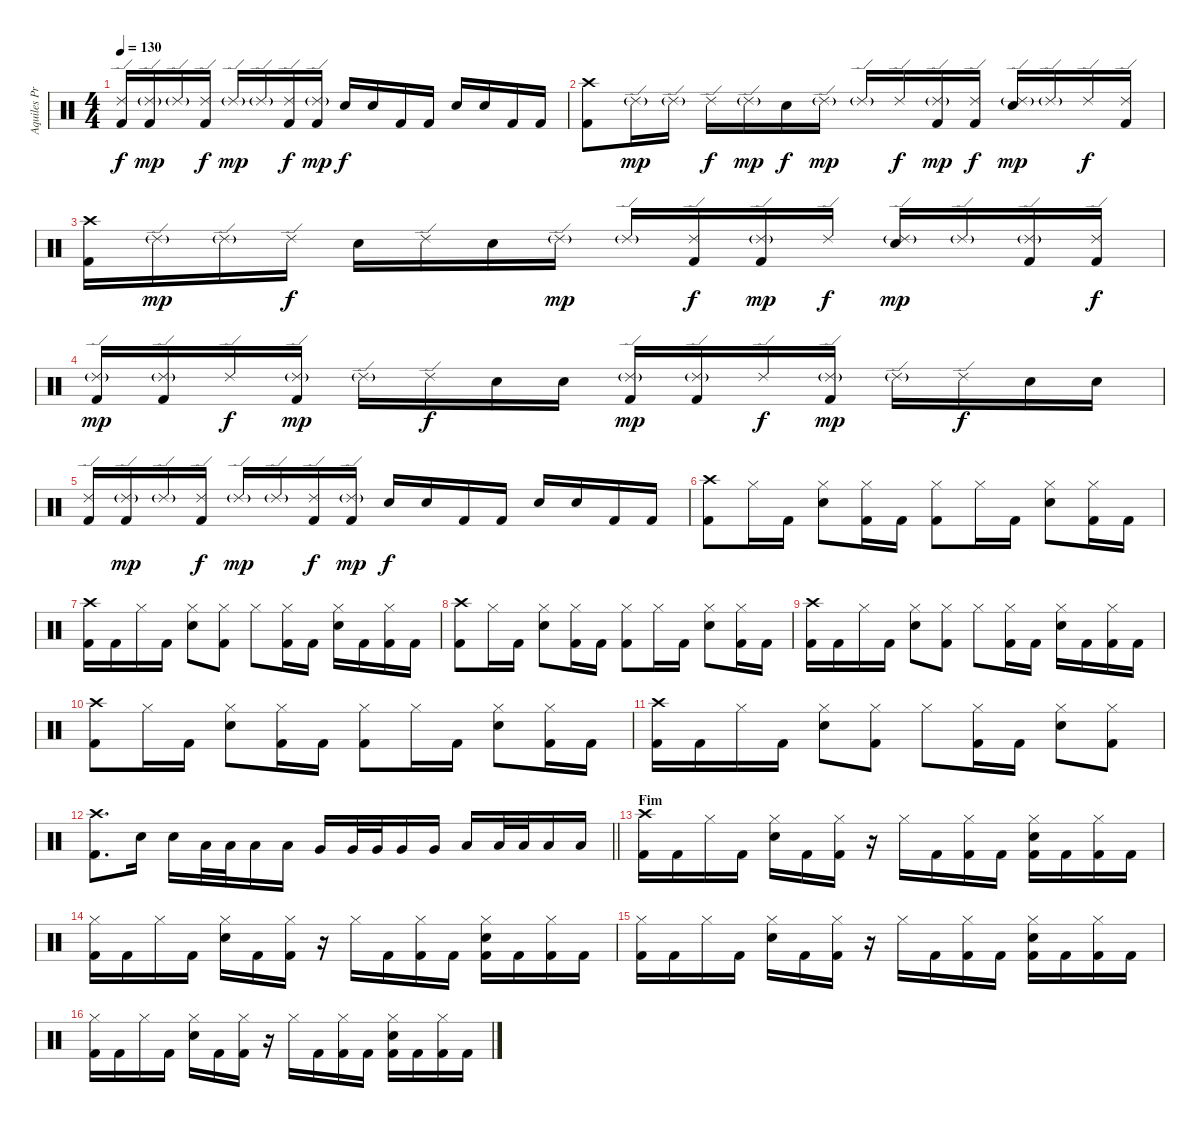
\track ("Aquiles Priester" "Aquiles Pr") {instrument percussion}
\staff {score}
\articulation defaults
\ts (4 4)
\tempo 130
\clef neutral
\ks c
("Ride (edge) 2" "Kick (hit) 2").16{dy f} ("Ride (edge) 2"{g} "Kick (hit) 2").16{dy mp} "Ride (edge) 2"{g}.16 ("Ride (edge) 2" "Kick (hit) 2").16{dy f} "Ride (edge) 2"{g}.16{dy mp} "Ride (edge) 2"{g}.16 ("Ride (edge) 2" "Kick (hit) 2").16{dy f} ("Ride (edge) 2"{g} "Kick (hit) 2").16{dy mp} "Electric Snare (hit)".16{dy f} "Electric Snare (hit)".16 "Kick (hit) 2".16 "Kick (hit) 2".16 "Electric Snare (hit)".16 "Electric Snare (hit)".16 "Kick (hit) 2".16 "Kick (hit) 2".16 |
("Crash high (hit)" "Kick (hit) 2").8 "Ride (edge) 2"{g}.16{dy mp} "Ride (edge) 2"{g}.16 "Ride (edge) 2".16{dy f} "Ride (edge) 2"{g}.16{dy mp} "Electric Snare (hit)".16{dy f} "Ride (edge) 2"{g}.16{dy mp} "Ride (edge) 2"{g}.16 "Ride (edge) 2".16{dy f} ("Ride (edge) 2"{g} "Kick (hit) 2").16{dy mp} ("Ride (edge) 2" "Kick (hit) 2").16{dy f} ("Ride (edge) 2"{g} "Electric Snare (hit)").16{dy mp} "Ride (edge) 2"{g}.16 "Ride (edge) 2".16{dy f} ("Ride (edge) 2" "Kick (hit) 2").16 |
("Crash high (hit)" "Kick (hit) 2").16 "Ride (edge) 2"{g}.16{dy mp} "Ride (edge) 2"{g}.16 "Ride (edge) 2".16{dy f} "Electric Snare (hit)".16 "Ride (edge) 2".16 "Electric Snare (hit)".16 "Ride (edge) 2"{g}.16{dy mp} "Ride (edge) 2"{g}.16 ("Ride (edge) 2" "Kick (hit) 2").16{dy f} ("Ride (edge) 2"{g} "Kick (hit) 2").16{dy mp} "Ride (edge) 2".16{dy f} ("Ride (edge) 2"{g} "Electric Snare (hit)").16{dy mp} "Ride (edge) 2"{g}.16 ("Ride (edge) 2"{g} "Kick (hit) 2").16 ("Ride (edge) 2" "Kick (hit) 2").16{dy f} |
("Ride (edge) 2"{g} "Kick (hit) 2").16{dy mp} ("Ride (edge) 2"{g} "Kick (hit) 2").16 "Ride (edge) 2".16{dy f} ("Ride (edge) 2"{g} "Kick (hit) 2").16{dy mp} "Ride (edge) 2"{g}.16 "Ride (edge) 2".16{dy f} "Electric Snare (hit)".16 "Electric Snare (hit)".16 ("Ride (edge) 2"{g} "Kick (hit) 2").16{dy mp} ("Ride (edge) 2"{g} "Kick (hit) 2").16 "Ride (edge) 2".16{dy f} ("Ride (edge) 2"{g} "Kick (hit) 2").16{dy mp} "Ride (edge) 2"{g}.16 "Ride (edge) 2".16{dy f} "Electric Snare (hit)".16 "Electric Snare (hit)".16 |
("Ride (edge) 2" "Kick (hit) 2").16 ("Ride (edge) 2"{g} "Kick (hit) 2").16{dy mp} "Ride (edge) 2"{g}.16 ("Ride (edge) 2" "Kick (hit) 2").16{dy f} "Ride (edge) 2"{g}.16{dy mp} "Ride (edge) 2"{g}.16 ("Ride (edge) 2" "Kick (hit) 2").16{dy f} ("Ride (edge) 2"{g} "Kick (hit) 2").16{dy mp} "Electric Snare (hit)".16{dy f} "Electric Snare (hit)".16 "Kick (hit) 2".16 "Kick (hit) 2".16 "Electric Snare (hit)".16 "Electric Snare (hit)".16 "Kick (hit) 2".16 "Kick (hit) 2".16 |
("Crash high (hit)" "Kick (hit) 2").8 "Hi-Hat (closed)".16 "Kick (hit) 2".16 ("Hi-Hat (closed)" "Electric Snare (hit)").8 ("Hi-Hat (closed)" "Kick (hit) 2").16 "Kick (hit) 2".16 ("Hi-Hat (closed)" "Kick (hit) 2").8 "Hi-Hat (closed)".16 "Kick (hit) 2".16 ("Hi-Hat (closed)" "Electric Snare (hit)").8 ("Hi-Hat (closed)" "Kick (hit) 2").16 "Kick (hit) 2".16 |
("Crash high (hit)" "Kick (hit) 2").16 "Kick (hit) 2".16 "Hi-Hat (closed)".16 "Kick (hit) 2".16 ("Hi-Hat (closed)" "Electric Snare (hit)").8 ("Hi-Hat (closed)" "Kick (hit) 2").8 "Hi-Hat (closed)".8 ("Hi-Hat (closed)" "Kick (hit) 2").16 "Kick (hit) 2".16 ("Hi-Hat (closed)" "Electric Snare (hit)").16 "Kick (hit) 2".16 ("Hi-Hat (closed)" "Kick (hit) 2").16 "Kick (hit) 2".16 |
("Crash high (hit)" "Kick (hit) 2").8 "Hi-Hat (closed)".16 "Kick (hit) 2".16 ("Hi-Hat (closed)" "Electric Snare (hit)").8 ("Hi-Hat (closed)" "Kick (hit) 2").16 "Kick (hit) 2".16 ("Hi-Hat (closed)" "Kick (hit) 2").8 "Hi-Hat (closed)".16 "Kick (hit) 2".16 ("Hi-Hat (closed)" "Electric Snare (hit)").8 ("Hi-Hat (closed)" "Kick (hit) 2").16 "Kick (hit) 2".16 |
("Crash high (hit)" "Kick (hit) 2").16 "Kick (hit) 2".16 "Hi-Hat (closed)".16 "Kick (hit) 2".16 ("Hi-Hat (closed)" "Electric Snare (hit)").8 ("Hi-Hat (closed)" "Kick (hit) 2").8 "Hi-Hat (closed)".8 ("Hi-Hat (closed)" "Kick (hit) 2").16 "Kick (hit) 2".16 ("Hi-Hat (closed)" "Electric Snare (hit)").16 "Kick (hit) 2".16 ("Hi-Hat (closed)" "Kick (hit) 2").16 "Kick (hit) 2".16 |
("Crash high (hit)" "Kick (hit) 2").8 "Hi-Hat (closed)".16 "Kick (hit) 2".16 ("Hi-Hat (closed)" "Electric Snare (hit)").8 ("Hi-Hat (closed)" "Kick (hit) 2").16 "Kick (hit) 2".16 ("Hi-Hat (closed)" "Kick (hit) 2").8 "Hi-Hat (closed)".16 "Kick (hit) 2".16 ("Hi-Hat (closed)" "Electric Snare (hit)").8 ("Hi-Hat (closed)" "Kick (hit) 2").16 "Kick (hit) 2".16 |
("Crash high (hit)" "Kick (hit) 2").16 "Kick (hit) 2".16 "Hi-Hat (closed)".16 "Kick (hit) 2".16 ("Hi-Hat (closed)" "Electric Snare (hit)").8 ("Hi-Hat (closed)" "Kick (hit) 2").8 "Hi-Hat (closed)".8 ("Hi-Hat (closed)" "Kick (hit) 2").16 "Kick (hit) 2".16 ("Hi-Hat (closed)" "Electric Snare (hit)").8 ("Hi-Hat (closed)" "Kick (hit) 2").8 |
\barLineRight lightlight
("Crash high (hit)" "Kick (hit) 2").8{d} "Electric Snare (hit)".16 "Electric Snare (hit)".16 "Low Tom (hit)".32 "Low Tom (hit)".32 "Low Tom (hit)".16 "Low Tom (hit)".16 "Very Low Tom (hit)".16 "Very Low Tom (hit)".32 "Very Low Tom (hit)".32 "Very Low Tom (hit)".16 "Very Low Tom (hit)".16 "Low Floor Tom (hit)".16 "Low Floor Tom (hit)".32 "Low Floor Tom (hit)".32 "Low Floor Tom (hit)".16 "Low Floor Tom (hit)".16 |
\section ("" "Fim")
("Crash high (hit)" "Kick (hit) 2").16 "Kick (hit) 2".16 "Hi-Hat (closed)".16 "Kick (hit) 2".16 ("Hi-Hat (closed)" "Electric Snare (hit)").16 "Kick (hit) 2".16 ("Hi-Hat (closed)" "Kick (hit) 2").16 r.16 "Hi-Hat (closed)".16 "Kick (hit) 2".16 ("Hi-Hat (closed)" "Kick (hit) 2").16 "Kick (hit) 2".16 ("Hi-Hat (closed)" "Electric Snare (hit)" "Kick (hit) 2").16 "Kick (hit) 2".16 ("Hi-Hat (closed)" "Kick (hit) 2").16 "Kick (hit) 2".16 |
("Hi-Hat (closed)" "Kick (hit) 2").16 "Kick (hit) 2".16 "Hi-Hat (closed)".16 "Kick (hit) 2".16 ("Hi-Hat (closed)" "Electric Snare (hit)").16 "Kick (hit) 2".16 ("Hi-Hat (closed)" "Kick (hit) 2").16 r.16 "Hi-Hat (closed)".16 "Kick (hit) 2".16 ("Hi-Hat (closed)" "Kick (hit) 2").16 "Kick (hit) 2".16 ("Hi-Hat (closed)" "Electric Snare (hit)" "Kick (hit) 2").16 "Kick (hit) 2".16 ("Hi-Hat (closed)" "Kick (hit) 2").16 "Kick (hit) 2".16 |
("Hi-Hat (closed)" "Kick (hit) 2").16 "Kick (hit) 2".16 "Hi-Hat (closed)".16 "Kick (hit) 2".16 ("Hi-Hat (closed)" "Electric Snare (hit)").16 "Kick (hit) 2".16 ("Hi-Hat (closed)" "Kick (hit) 2").16 r.16 "Hi-Hat (closed)".16 "Kick (hit) 2".16 ("Hi-Hat (closed)" "Kick (hit) 2").16 "Kick (hit) 2".16 ("Hi-Hat (closed)" "Electric Snare (hit)" "Kick (hit) 2").16 "Kick (hit) 2".16 ("Hi-Hat (closed)" "Kick (hit) 2").16 "Kick (hit) 2".16 |
("Hi-Hat (closed)" "Kick (hit) 2").16 "Kick (hit) 2".16 "Hi-Hat (closed)".16 "Kick (hit) 2".16 ("Hi-Hat (closed)" "Electric Snare (hit)").16 "Kick (hit) 2".16 ("Hi-Hat (closed)" "Kick (hit) 2").16 r.16 "Hi-Hat (closed)".16 "Kick (hit) 2".16 ("Hi-Hat (closed)" "Kick (hit) 2").16 "Kick (hit) 2".16 ("Hi-Hat (closed)" "Electric Snare (hit)" "Kick (hit) 2").16 "Kick (hit) 2".16 ("Hi-Hat (closed)" "Kick (hit) 2").16 "Kick (hit) 2".16
